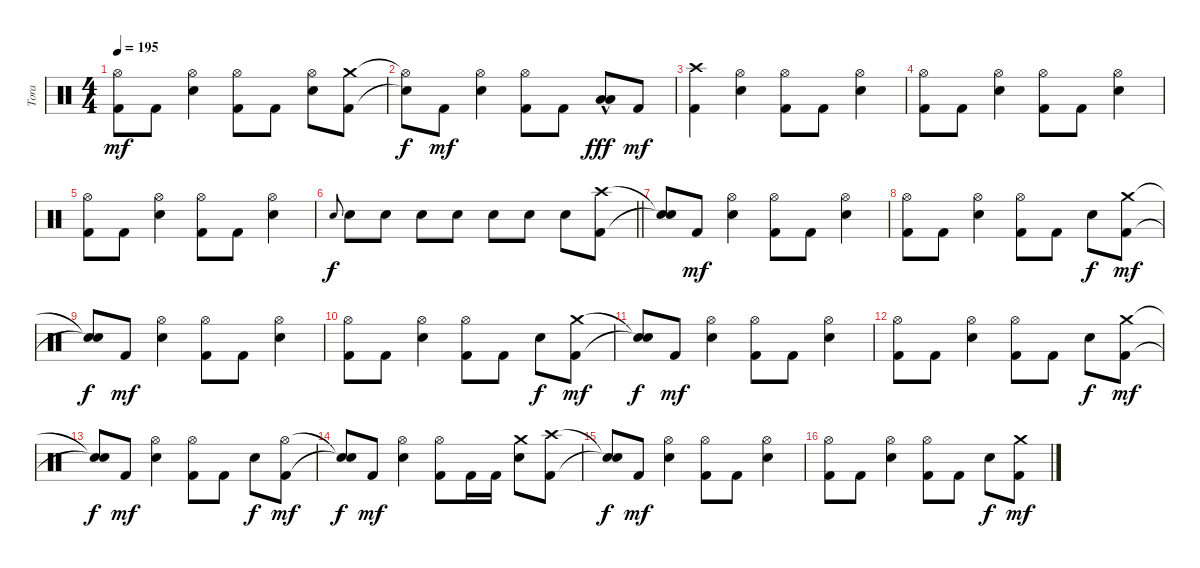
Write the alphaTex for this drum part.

\track ("Tora" "Tora") {instrument percussion}
\staff {score}
\articulation defaults
\ts (4 4)
\tempo 195
\clef neutral
\ks c
("Hi-Hat (open)" "Kick (hit) 2").8{dy mf} "Kick (hit) 2".8 ("Hi-Hat (open)" "Electric Snare (hit)").4 ("Hi-Hat (open)" "Kick (hit) 2").8 "Kick (hit) 2".8 ("Hi-Hat (open)" "Electric Snare (hit)").8 ("Crash medium (hit)" "Kick (hit) 2").8 |
("Hi-Hat (open)"{t} "Snare (hit)"{t}).8{dy f} "Kick (hit) 2".8{dy mf} ("Hi-Hat (open)" "Electric Snare (hit)").4 ("Hi-Hat (open)" "Kick (hit) 2").8 "Kick (hit) 2".8 ("Low Tom (hit)"{hac} "Low Tom (hit)"{hac}).8{dy fff} "Kick (hit) 2".8{dy mf} |
("Crash high (hit)" "Kick (hit) 2").4 ("Hi-Hat (open)" "Electric Snare (hit)").4 ("Hi-Hat (open)" "Kick (hit) 2").8 "Kick (hit) 2".8 ("Hi-Hat (open)" "Electric Snare (hit)").4 |
("Hi-Hat (open)" "Kick (hit) 2").8 "Kick (hit) 2".8 ("Hi-Hat (open)" "Electric Snare (hit)").4 ("Hi-Hat (open)" "Kick (hit) 2").8 "Kick (hit) 2".8 ("Hi-Hat (open)" "Electric Snare (hit)").4 |
("Hi-Hat (open)" "Kick (hit) 2").8 "Kick (hit) 2".8 ("Hi-Hat (open)" "Electric Snare (hit)").4 ("Hi-Hat (open)" "Kick (hit) 2").8 "Kick (hit) 2".8 ("Hi-Hat (open)" "Electric Snare (hit)").4 |
\barLineRight lightlight "Electric Snare (hit)".8{gr onbeat dy f} "Electric Snare (hit)".8 "Electric Snare (hit)".8 "Electric Snare (hit)".8 "Electric Snare (hit)".8 "Electric Snare (hit)".8 "Electric Snare (hit)".8 "Electric Snare (hit)".8
("Crash high (hit)" "Kick (hit) 2").8 |
("Snare (hit)"{t} "Snare (hit)"{t}).8 "Kick (hit) 2".8{dy mf} ("Hi-Hat (open)" "Electric Snare (hit)").4 ("Hi-Hat (open)" "Kick (hit) 2").8 "Kick (hit) 2".8 ("Hi-Hat (open)" "Electric Snare (hit)").4 |
("Hi-Hat (open)" "Kick (hit) 2").8 "Kick (hit) 2".8 ("Hi-Hat (open)" "Electric Snare (hit)").4 ("Hi-Hat (open)" "Kick (hit) 2").8 "Kick (hit) 2".8 "Electric Snare (hit)".8{dy f} ("Crash medium (hit)" "Kick (hit) 2").8{dy mf} |
("Snare (hit)"{t} "Snare (hit)"{t}).8{dy f} "Kick (hit) 2".8{dy mf} ("Hi-Hat (open)" "Electric Snare (hit)").4 ("Hi-Hat (open)" "Kick (hit) 2").8 "Kick (hit) 2".8 ("Hi-Hat (open)" "Electric Snare (hit)").4 |
("Hi-Hat (open)" "Kick (hit) 2").8 "Kick (hit) 2".8 ("Hi-Hat (open)" "Electric Snare (hit)").4 ("Hi-Hat (open)" "Kick (hit) 2").8 "Kick (hit) 2".8 "Electric Snare (hit)".8{dy f} ("Crash medium (hit)" "Kick (hit) 2").8{dy mf} |
("Snare (hit)"{t} "Snare (hit)"{t}).8{dy f} "Kick (hit) 2".8{dy mf} ("Hi-Hat (open)" "Electric Snare (hit)").4 ("Hi-Hat (open)" "Kick (hit) 2").8 "Kick (hit) 2".8 ("Hi-Hat (open)" "Electric Snare (hit)").4 |
("Hi-Hat (open)" "Kick (hit) 2").8 "Kick (hit) 2".8 ("Hi-Hat (open)" "Electric Snare (hit)").4 ("Hi-Hat (open)" "Kick (hit) 2").8 "Kick (hit) 2".8 "Electric Snare (hit)".8{dy f} ("Crash medium (hit)" "Kick (hit) 2").8{dy mf} |
("Snare (hit)"{t} "Snare (hit)"{t}).8{dy f} "Kick (hit) 2".8{dy mf} ("Hi-Hat (open)" "Electric Snare (hit)").4 ("Hi-Hat (open)" "Kick (hit) 2").8 "Kick (hit) 2".8 "Electric Snare (hit)".8{dy f} ("Hi-Hat (open)" "Kick (hit) 2").8{dy mf} |
("Snare (hit)"{t} "Snare (hit)"{t}).8{dy f} "Kick (hit) 2".8{dy mf} ("Hi-Hat (open)" "Electric Snare (hit)").4 ("Hi-Hat (open)" "Kick (hit) 2").8 "Kick (hit) 2".16 "Kick (hit) 2".16 ("Crash medium (hit)" "Electric Snare (hit)").8 ("Crash high (hit)" "Kick (hit) 2").8 |
("Snare (hit)"{t} "Snare (hit)"{t}).8{dy f} "Kick (hit) 2".8{dy mf} ("Hi-Hat (open)" "Electric Snare (hit)").4 ("Hi-Hat (open)" "Kick (hit) 2").8 "Kick (hit) 2".8 ("Hi-Hat (open)" "Electric Snare (hit)").4 |
("Hi-Hat (open)" "Kick (hit) 2").8 "Kick (hit) 2".8 ("Hi-Hat (open)" "Electric Snare (hit)").4 ("Hi-Hat (open)" "Kick (hit) 2").8 "Kick (hit) 2".8 "Electric Snare (hit)".8{dy f} ("Crash medium (hit)" "Kick (hit) 2").8{dy mf}
